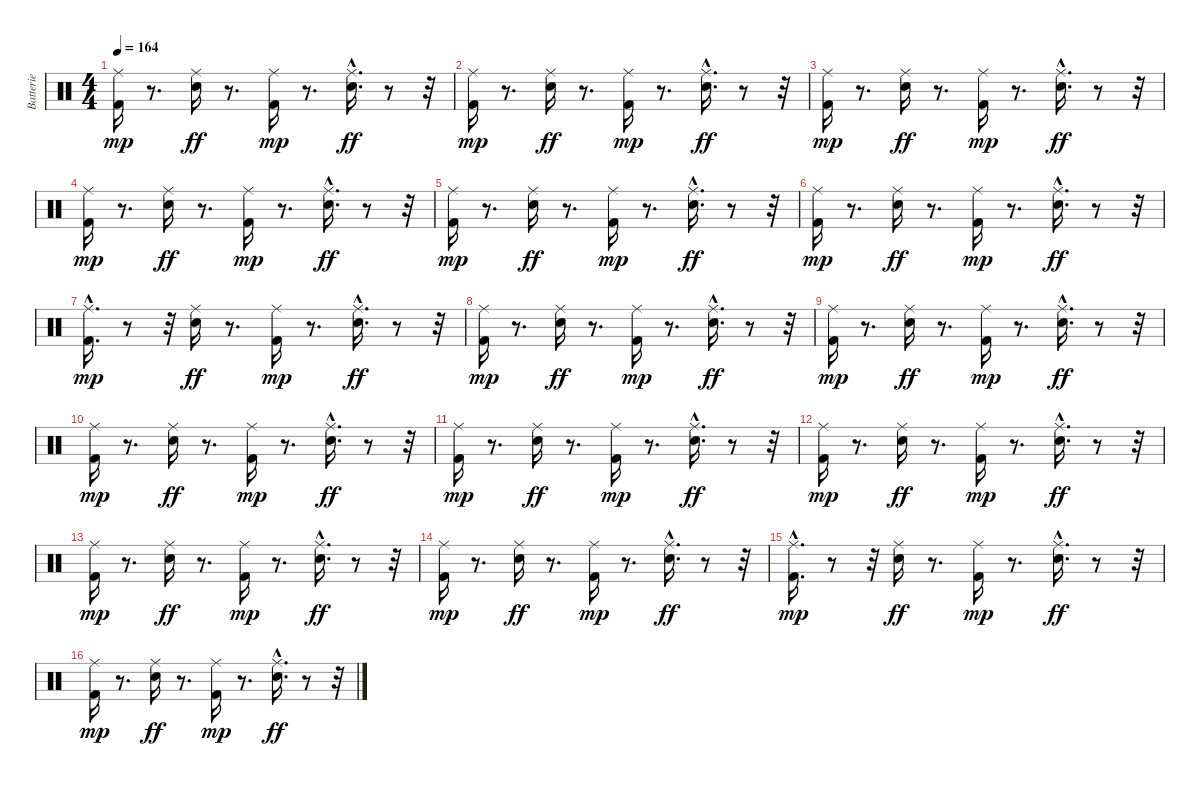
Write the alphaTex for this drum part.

\track ("Batterie" "Batterie") {instrument percussion}
\staff {score}
\articulation defaults
\ts (4 4)
\tempo 164
\clef neutral
\ks c
("Kick (hit) 2" "Ride (middle)").16{dy mp} r.8{d} ("Ride (middle)" "Electric Snare (hit)").16{dy ff} r.8{d} ("Kick (hit) 2" "Ride (middle)").16{dy mp} r.8{d} ("Ride (middle)"{hac} "Electric Snare (hit)").16{d dy ff} r.8 r.32 |
("Kick (hit) 2" "Ride (middle)").16{dy mp} r.8{d} ("Ride (middle)" "Electric Snare (hit)").16{dy ff} r.8{d} ("Kick (hit) 2" "Ride (middle)").16{dy mp} r.8{d} ("Ride (middle)"{hac} "Electric Snare (hit)").16{d dy ff} r.8 r.32 |
("Kick (hit) 2" "Ride (middle)").16{dy mp} r.8{d} ("Ride (middle)" "Electric Snare (hit)").16{dy ff} r.8{d} ("Kick (hit) 2" "Ride (middle)").16{dy mp} r.8{d} ("Ride (middle)"{hac} "Electric Snare (hit)").16{d dy ff} r.8 r.32 |
("Kick (hit) 2" "Ride (middle)").16{dy mp} r.8{d} ("Ride (middle)" "Electric Snare (hit)").16{dy ff} r.8{d} ("Kick (hit) 2" "Ride (middle)").16{dy mp} r.8{d} ("Ride (middle)"{hac} "Electric Snare (hit)").16{d dy ff} r.8 r.32 |
("Kick (hit) 2" "Ride (middle)").16{dy mp} r.8{d} ("Ride (middle)" "Electric Snare (hit)").16{dy ff} r.8{d} ("Kick (hit) 2" "Ride (middle)").16{dy mp} r.8{d} ("Ride (middle)"{hac} "Electric Snare (hit)").16{d dy ff} r.8 r.32 |
("Kick (hit) 2" "Ride (middle)").16{dy mp} r.8{d} ("Ride (middle)" "Electric Snare (hit)").16{dy ff} r.8{d} ("Kick (hit) 2" "Ride (middle)").16{dy mp} r.8{d} ("Ride (middle)"{hac} "Electric Snare (hit)").16{d dy ff} r.8 r.32 |
("Kick (hit) 2" "Ride (middle)"{hac}).16{d dy mp} r.8 r.32 ("Ride (middle)" "Electric Snare (hit)").16{dy ff} r.8{d} ("Kick (hit) 2" "Ride (middle)").16{dy mp} r.8{d} ("Ride (middle)"{hac} "Electric Snare (hit)").16{d dy ff} r.8 r.32 |
("Kick (hit) 2" "Ride (middle)").16{dy mp} r.8{d} ("Ride (middle)" "Electric Snare (hit)").16{dy ff} r.8{d} ("Kick (hit) 2" "Ride (middle)").16{dy mp} r.8{d} ("Ride (middle)"{hac} "Electric Snare (hit)").16{d dy ff} r.8 r.32 |
("Kick (hit) 2" "Ride (middle)").16{dy mp} r.8{d} ("Ride (middle)" "Electric Snare (hit)").16{dy ff} r.8{d} ("Kick (hit) 2" "Ride (middle)").16{dy mp} r.8{d} ("Ride (middle)"{hac} "Electric Snare (hit)").16{d dy ff} r.8 r.32 |
("Kick (hit) 2" "Ride (middle)").16{dy mp} r.8{d} ("Ride (middle)" "Electric Snare (hit)").16{dy ff} r.8{d} ("Kick (hit) 2" "Ride (middle)").16{dy mp} r.8{d} ("Ride (middle)"{hac} "Electric Snare (hit)").16{d dy ff} r.8 r.32 |
("Kick (hit) 2" "Ride (middle)").16{dy mp} r.8{d} ("Ride (middle)" "Electric Snare (hit)").16{dy ff} r.8{d} ("Kick (hit) 2" "Ride (middle)").16{dy mp} r.8{d} ("Ride (middle)"{hac} "Electric Snare (hit)").16{d dy ff} r.8 r.32 |
("Kick (hit) 2" "Ride (middle)").16{dy mp} r.8{d} ("Ride (middle)" "Electric Snare (hit)").16{dy ff} r.8{d} ("Kick (hit) 2" "Ride (middle)").16{dy mp} r.8{d} ("Ride (middle)"{hac} "Electric Snare (hit)").16{d dy ff} r.8 r.32 |
("Kick (hit) 2" "Ride (middle)").16{dy mp} r.8{d} ("Ride (middle)" "Electric Snare (hit)").16{dy ff} r.8{d} ("Kick (hit) 2" "Ride (middle)").16{dy mp} r.8{d} ("Ride (middle)"{hac} "Electric Snare (hit)").16{d dy ff} r.8 r.32 |
("Kick (hit) 2" "Ride (middle)").16{dy mp} r.8{d} ("Ride (middle)" "Electric Snare (hit)").16{dy ff} r.8{d} ("Kick (hit) 2" "Ride (middle)").16{dy mp} r.8{d} ("Ride (middle)"{hac} "Electric Snare (hit)").16{d dy ff} r.8 r.32 |
("Kick (hit) 2" "Ride (middle)"{hac}).16{d dy mp} r.8 r.32 ("Ride (middle)" "Electric Snare (hit)").16{dy ff} r.8{d} ("Kick (hit) 2" "Ride (middle)").16{dy mp} r.8{d} ("Ride (middle)"{hac} "Electric Snare (hit)").16{d dy ff} r.8 r.32 |
("Kick (hit) 2" "Ride (middle)").16{dy mp} r.8{d} ("Ride (middle)" "Electric Snare (hit)").16{dy ff} r.8{d} ("Kick (hit) 2" "Ride (middle)").16{dy mp} r.8{d} ("Ride (middle)"{hac} "Electric Snare (hit)").16{d dy ff} r.8 r.32
